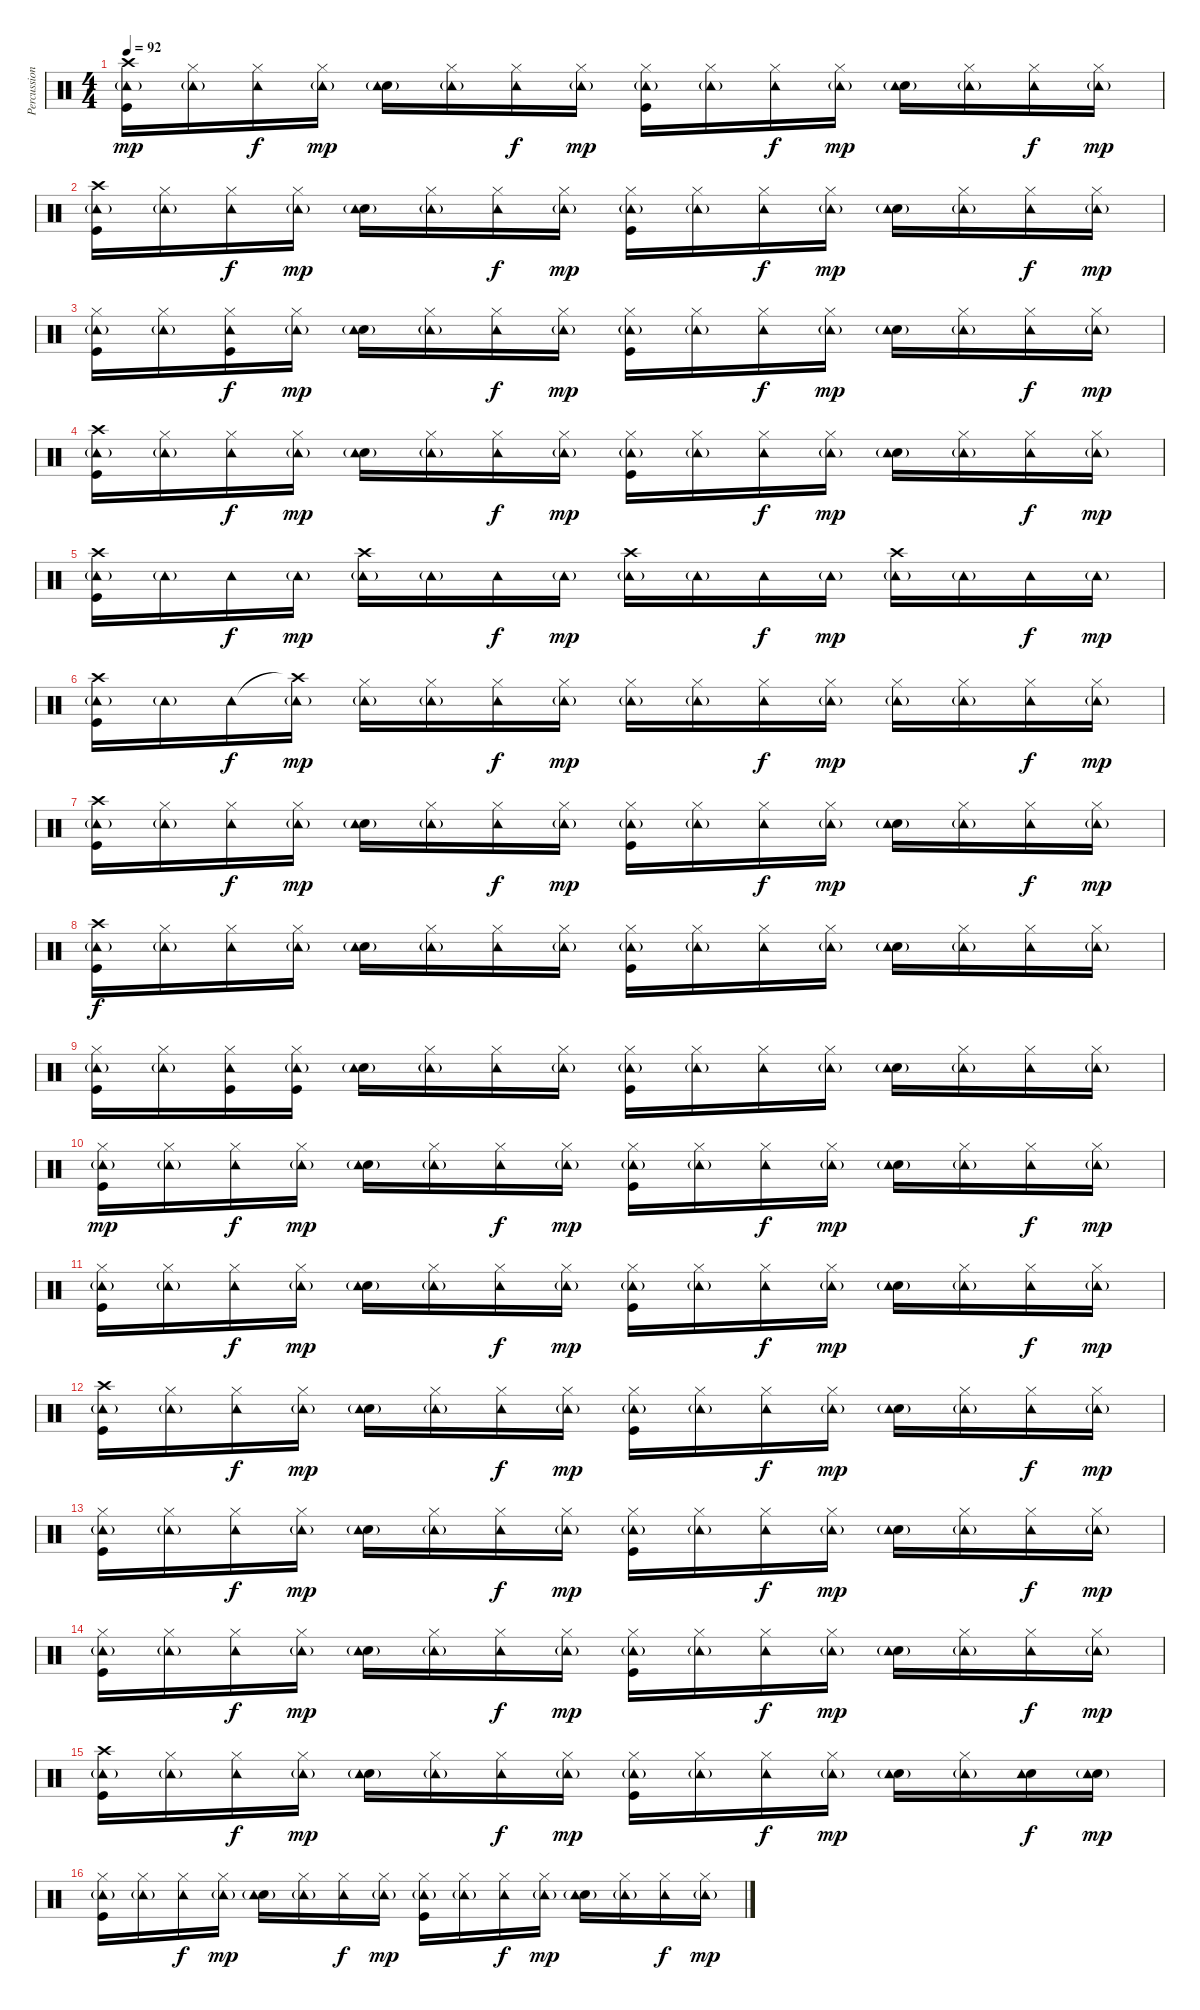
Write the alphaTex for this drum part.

\track ("Percussion" "Percussion") {instrument percussion}
\staff {score}
\articulation defaults
\ts (4 4)
\tempo 92
\clef neutral
\ks c
("Crash high (hit)" "Kick (hit)" "Tambourine (hit)"{g}).16{dy mp} ("Hi-Hat (closed)" "Tambourine (hit)"{g}).16 ("Hi-Hat (closed)" "Tambourine (hit)").16{dy f} ("Hi-Hat (closed)" "Tambourine (hit)"{g}).16{dy mp} ("Snare (hit) 2" "Tambourine (hit)"{g}).16 ("Hi-Hat (closed)" "Tambourine (hit)"{g}).16 ("Hi-Hat (closed)" "Tambourine (hit)").16{dy f} ("Hi-Hat (closed)" "Tambourine (hit)"{g}).16{dy mp} ("Hi-Hat (closed)" "Kick (hit)" "Tambourine (hit)"{g}).16 ("Hi-Hat (closed)" "Tambourine (hit)"{g}).16 ("Hi-Hat (closed)" "Tambourine (hit)").16{dy f} ("Hi-Hat (closed)" "Tambourine (hit)"{g}).16{dy mp} ("Snare (hit) 2" "Tambourine (hit)"{g}).16 ("Hi-Hat (closed)" "Tambourine (hit)"{g}).16 ("Hi-Hat (closed)" "Tambourine (hit)").16{dy f} ("Hi-Hat (closed)" "Tambourine (hit)"{g}).16{dy mp} |
("Crash high (hit)" "Kick (hit)" "Tambourine (hit)"{g}).16 ("Hi-Hat (closed)" "Tambourine (hit)"{g}).16 ("Hi-Hat (closed)" "Tambourine (hit)").16{dy f} ("Hi-Hat (closed)" "Tambourine (hit)"{g}).16{dy mp} ("Snare (hit) 2" "Tambourine (hit)"{g}).16 ("Hi-Hat (closed)" "Tambourine (hit)"{g}).16 ("Hi-Hat (closed)" "Tambourine (hit)").16{dy f} ("Hi-Hat (closed)" "Tambourine (hit)"{g}).16{dy mp} ("Hi-Hat (closed)" "Kick (hit)" "Tambourine (hit)"{g}).16 ("Hi-Hat (closed)" "Tambourine (hit)"{g}).16 ("Hi-Hat (closed)" "Tambourine (hit)").16{dy f} ("Hi-Hat (closed)" "Tambourine (hit)"{g}).16{dy mp} ("Snare (hit) 2" "Tambourine (hit)"{g}).16 ("Hi-Hat (closed)" "Tambourine (hit)"{g}).16 ("Hi-Hat (closed)" "Tambourine (hit)").16{dy f} ("Hi-Hat (closed)" "Tambourine (hit)"{g}).16{dy mp} |
("Hi-Hat (closed)" "Kick (hit)" "Tambourine (hit)"{g}).16 ("Hi-Hat (closed)" "Tambourine (hit)"{g}).16 ("Hi-Hat (closed)" "Kick (hit)" "Tambourine (hit)").16{dy f} ("Hi-Hat (closed)" "Tambourine (hit)"{g}).16{dy mp} ("Snare (hit) 2" "Tambourine (hit)"{g}).16 ("Hi-Hat (closed)" "Tambourine (hit)"{g}).16 ("Hi-Hat (closed)" "Tambourine (hit)").16{dy f} ("Hi-Hat (closed)" "Tambourine (hit)"{g}).16{dy mp} ("Hi-Hat (closed)" "Kick (hit)" "Tambourine (hit)"{g}).16 ("Hi-Hat (closed)" "Tambourine (hit)"{g}).16 ("Hi-Hat (closed)" "Tambourine (hit)").16{dy f} ("Hi-Hat (closed)" "Tambourine (hit)"{g}).16{dy mp} ("Snare (hit) 2" "Tambourine (hit)"{g}).16 ("Hi-Hat (closed)" "Tambourine (hit)"{g}).16 ("Hi-Hat (closed)" "Tambourine (hit)").16{dy f} ("Hi-Hat (closed)" "Tambourine (hit)"{g}).16{dy mp} |
("Crash high (hit)" "Kick (hit)" "Tambourine (hit)"{g}).16 ("Hi-Hat (closed)" "Tambourine (hit)"{g}).16 ("Hi-Hat (closed)" "Tambourine (hit)").16{dy f} ("Hi-Hat (closed)" "Tambourine (hit)"{g}).16{dy mp} ("Snare (hit) 2" "Tambourine (hit)"{g}).16 ("Hi-Hat (closed)" "Tambourine (hit)"{g}).16 ("Hi-Hat (closed)" "Tambourine (hit)").16{dy f} ("Hi-Hat (closed)" "Tambourine (hit)"{g}).16{dy mp} ("Hi-Hat (closed)" "Kick (hit)" "Tambourine (hit)"{g}).16 ("Hi-Hat (closed)" "Tambourine (hit)"{g}).16 ("Hi-Hat (closed)" "Tambourine (hit)").16{dy f} ("Hi-Hat (closed)" "Tambourine (hit)"{g}).16{dy mp} ("Snare (hit) 2" "Tambourine (hit)"{g}).16 ("Hi-Hat (closed)" "Tambourine (hit)"{g}).16 ("Hi-Hat (closed)" "Tambourine (hit)").16{dy f} ("Hi-Hat (closed)" "Tambourine (hit)"{g}).16{dy mp} |
("Crash high (hit)" "Kick (hit)" "Tambourine (hit)"{g}).16 "Tambourine (hit)"{g}.16 "Tambourine (hit)".16{dy f} "Tambourine (hit)"{g}.16{dy mp} ("Crash high (hit)" "Tambourine (hit)"{g}).16 "Tambourine (hit)"{g}.16 "Tambourine (hit)".16{dy f} "Tambourine (hit)"{g}.16{dy mp} ("Crash high (hit)" "Tambourine (hit)"{g}).16 "Tambourine (hit)"{g}.16 "Tambourine (hit)".16{dy f} "Tambourine (hit)"{g}.16{dy mp} ("Crash high (hit)" "Tambourine (hit)"{g}).16 "Tambourine (hit)"{g}.16 "Tambourine (hit)".16{dy f} "Tambourine (hit)"{g}.16{dy mp} |
("Crash high (hit)" "Kick (hit)" "Tambourine (hit)"{g}).16 "Tambourine (hit)"{g}.16 "Tambourine (hit)".16{dy f} ("Crash high (hit)"{t} "Tambourine (hit)"{g}).16{dy mp} ("Hi-Hat (closed)" "Tambourine (hit)"{g}).16 ("Hi-Hat (closed)" "Tambourine (hit)"{g}).16 ("Hi-Hat (closed)" "Tambourine (hit)").16{dy f} ("Hi-Hat (closed)" "Tambourine (hit)"{g}).16{dy mp} ("Hi-Hat (closed)" "Tambourine (hit)"{g}).16 ("Hi-Hat (closed)" "Tambourine (hit)"{g}).16 ("Hi-Hat (closed)" "Tambourine (hit)").16{dy f} ("Hi-Hat (closed)" "Tambourine (hit)"{g}).16{dy mp} ("Hi-Hat (closed)" "Tambourine (hit)"{g}).16 ("Hi-Hat (closed)" "Tambourine (hit)"{g}).16 ("Hi-Hat (closed)" "Tambourine (hit)").16{dy f} ("Hi-Hat (closed)" "Tambourine (hit)"{g}).16{dy mp} |
("Crash high (hit)" "Kick (hit)" "Tambourine (hit)"{g}).16 ("Hi-Hat (closed)" "Tambourine (hit)"{g}).16 ("Hi-Hat (closed)" "Tambourine (hit)").16{dy f} ("Hi-Hat (closed)" "Tambourine (hit)"{g}).16{dy mp} ("Snare (hit) 2" "Tambourine (hit)"{g}).16 ("Hi-Hat (closed)" "Tambourine (hit)"{g}).16 ("Hi-Hat (closed)" "Tambourine (hit)").16{dy f} ("Hi-Hat (closed)" "Tambourine (hit)"{g}).16{dy mp} ("Hi-Hat (closed)" "Kick (hit)" "Tambourine (hit)"{g}).16 ("Hi-Hat (closed)" "Tambourine (hit)"{g}).16 ("Hi-Hat (closed)" "Tambourine (hit)").16{dy f} ("Hi-Hat (closed)" "Tambourine (hit)"{g}).16{dy mp} ("Snare (hit) 2" "Tambourine (hit)"{g}).16 ("Hi-Hat (closed)" "Tambourine (hit)"{g}).16 ("Hi-Hat (closed)" "Tambourine (hit)").16{dy f} ("Hi-Hat (closed)" "Tambourine (hit)"{g}).16{dy mp} |
("Crash high (hit)" "Kick (hit)" "Tambourine (hit)"{g}).16{dy f} ("Hi-Hat (closed)" "Tambourine (hit)"{g}).16 ("Hi-Hat (closed)" "Tambourine (hit)").16 ("Hi-Hat (closed)" "Tambourine (hit)"{g}).16 ("Snare (hit) 2" "Tambourine (hit)"{g}).16 ("Hi-Hat (closed)" "Tambourine (hit)"{g}).16 ("Hi-Hat (closed)" "Tambourine (hit)").16 ("Hi-Hat (closed)" "Tambourine (hit)"{g}).16 ("Hi-Hat (closed)" "Kick (hit)" "Tambourine (hit)"{g}).16 ("Hi-Hat (closed)" "Tambourine (hit)"{g}).16 ("Hi-Hat (closed)" "Tambourine (hit)").16 ("Hi-Hat (closed)" "Tambourine (hit)"{g}).16 ("Snare (hit) 2" "Tambourine (hit)"{g}).16 ("Hi-Hat (closed)" "Tambourine (hit)"{g}).16 ("Hi-Hat (closed)" "Tambourine (hit)").16 ("Hi-Hat (closed)" "Tambourine (hit)"{g}).16 |
("Hi-Hat (closed)" "Kick (hit)" "Tambourine (hit)"{g}).16 ("Hi-Hat (closed)" "Tambourine (hit)"{g}).16 ("Hi-Hat (closed)" "Kick (hit)" "Tambourine (hit)").16 ("Hi-Hat (closed)" "Kick (hit)" "Tambourine (hit)"{g}).16 ("Snare (hit) 2" "Tambourine (hit)"{g}).16 ("Hi-Hat (closed)" "Tambourine (hit)"{g}).16 ("Hi-Hat (closed)" "Tambourine (hit)").16 ("Hi-Hat (closed)" "Tambourine (hit)"{g}).16 ("Hi-Hat (closed)" "Kick (hit)" "Tambourine (hit)"{g}).16 ("Hi-Hat (closed)" "Tambourine (hit)"{g}).16 ("Hi-Hat (closed)" "Tambourine (hit)").16 ("Hi-Hat (closed)" "Tambourine (hit)"{g}).16 ("Snare (hit) 2" "Tambourine (hit)"{g}).16 ("Hi-Hat (closed)" "Tambourine (hit)"{g}).16 ("Hi-Hat (closed)" "Tambourine (hit)").16 ("Hi-Hat (closed)" "Tambourine (hit)"{g}).16 |
("Hi-Hat (closed)" "Kick (hit)" "Tambourine (hit)"{g}).16{dy mp} ("Hi-Hat (closed)" "Tambourine (hit)"{g}).16 ("Hi-Hat (closed)" "Tambourine (hit)").16{dy f} ("Hi-Hat (closed)" "Tambourine (hit)"{g}).16{dy mp} ("Snare (hit) 2" "Tambourine (hit)"{g}).16 ("Hi-Hat (closed)" "Tambourine (hit)"{g}).16 ("Hi-Hat (closed)" "Tambourine (hit)").16{dy f} ("Hi-Hat (closed)" "Tambourine (hit)"{g}).16{dy mp} ("Hi-Hat (closed)" "Kick (hit)" "Tambourine (hit)"{g}).16 ("Hi-Hat (closed)" "Tambourine (hit)"{g}).16 ("Hi-Hat (closed)" "Tambourine (hit)").16{dy f} ("Hi-Hat (closed)" "Tambourine (hit)"{g}).16{dy mp} ("Snare (hit) 2" "Tambourine (hit)"{g}).16 ("Hi-Hat (closed)" "Tambourine (hit)"{g}).16 ("Hi-Hat (closed)" "Tambourine (hit)").16{dy f} ("Hi-Hat (closed)" "Tambourine (hit)"{g}).16{dy mp} |
("Hi-Hat (closed)" "Kick (hit)" "Tambourine (hit)"{g}).16 ("Hi-Hat (closed)" "Tambourine (hit)"{g}).16 ("Hi-Hat (closed)" "Tambourine (hit)").16{dy f} ("Hi-Hat (closed)" "Tambourine (hit)"{g}).16{dy mp} ("Snare (hit) 2" "Tambourine (hit)"{g}).16 ("Hi-Hat (closed)" "Tambourine (hit)"{g}).16 ("Hi-Hat (closed)" "Tambourine (hit)").16{dy f} ("Hi-Hat (closed)" "Tambourine (hit)"{g}).16{dy mp} ("Hi-Hat (closed)" "Kick (hit)" "Tambourine (hit)"{g}).16 ("Hi-Hat (closed)" "Tambourine (hit)"{g}).16 ("Hi-Hat (closed)" "Tambourine (hit)").16{dy f} ("Hi-Hat (closed)" "Tambourine (hit)"{g}).16{dy mp} ("Snare (hit) 2" "Tambourine (hit)"{g}).16 ("Hi-Hat (closed)" "Tambourine (hit)"{g}).16 ("Hi-Hat (closed)" "Tambourine (hit)").16{dy f} ("Hi-Hat (closed)" "Tambourine (hit)"{g}).16{dy mp} |
("Crash high (hit)" "Kick (hit)" "Tambourine (hit)"{g}).16 ("Hi-Hat (closed)" "Tambourine (hit)"{g}).16 ("Hi-Hat (closed)" "Tambourine (hit)").16{dy f} ("Hi-Hat (closed)" "Tambourine (hit)"{g}).16{dy mp} ("Snare (hit) 2" "Tambourine (hit)"{g}).16 ("Hi-Hat (closed)" "Tambourine (hit)"{g}).16 ("Hi-Hat (closed)" "Tambourine (hit)").16{dy f} ("Hi-Hat (closed)" "Tambourine (hit)"{g}).16{dy mp} ("Hi-Hat (closed)" "Kick (hit)" "Tambourine (hit)"{g}).16 ("Hi-Hat (closed)" "Tambourine (hit)"{g}).16 ("Hi-Hat (closed)" "Tambourine (hit)").16{dy f} ("Hi-Hat (closed)" "Tambourine (hit)"{g}).16{dy mp} ("Snare (hit) 2" "Tambourine (hit)"{g}).16 ("Hi-Hat (closed)" "Tambourine (hit)"{g}).16 ("Hi-Hat (closed)" "Tambourine (hit)").16{dy f} ("Hi-Hat (closed)" "Tambourine (hit)"{g}).16{dy mp} |
("Hi-Hat (closed)" "Kick (hit)" "Tambourine (hit)"{g}).16 ("Hi-Hat (closed)" "Tambourine (hit)"{g}).16 ("Hi-Hat (closed)" "Tambourine (hit)").16{dy f} ("Hi-Hat (closed)" "Tambourine (hit)"{g}).16{dy mp} ("Snare (hit) 2" "Tambourine (hit)"{g}).16 ("Hi-Hat (closed)" "Tambourine (hit)"{g}).16 ("Hi-Hat (closed)" "Tambourine (hit)").16{dy f} ("Hi-Hat (closed)" "Tambourine (hit)"{g}).16{dy mp} ("Hi-Hat (closed)" "Kick (hit)" "Tambourine (hit)"{g}).16 ("Hi-Hat (closed)" "Tambourine (hit)"{g}).16 ("Hi-Hat (closed)" "Tambourine (hit)").16{dy f} ("Hi-Hat (closed)" "Tambourine (hit)"{g}).16{dy mp} ("Snare (hit) 2" "Tambourine (hit)"{g}).16 ("Hi-Hat (closed)" "Tambourine (hit)"{g}).16 ("Hi-Hat (closed)" "Tambourine (hit)").16{dy f} ("Hi-Hat (closed)" "Tambourine (hit)"{g}).16{dy mp} |
("Hi-Hat (closed)" "Kick (hit)" "Tambourine (hit)"{g}).16 ("Hi-Hat (closed)" "Tambourine (hit)"{g}).16 ("Hi-Hat (closed)" "Tambourine (hit)").16{dy f} ("Hi-Hat (closed)" "Tambourine (hit)"{g}).16{dy mp} ("Snare (hit) 2" "Tambourine (hit)"{g}).16 ("Hi-Hat (closed)" "Tambourine (hit)"{g}).16 ("Hi-Hat (closed)" "Tambourine (hit)").16{dy f} ("Hi-Hat (closed)" "Tambourine (hit)"{g}).16{dy mp} ("Hi-Hat (closed)" "Kick (hit)" "Tambourine (hit)"{g}).16 ("Hi-Hat (closed)" "Tambourine (hit)"{g}).16 ("Hi-Hat (closed)" "Tambourine (hit)").16{dy f} ("Hi-Hat (closed)" "Tambourine (hit)"{g}).16{dy mp} ("Snare (hit) 2" "Tambourine (hit)"{g}).16 ("Hi-Hat (closed)" "Tambourine (hit)"{g}).16 ("Hi-Hat (closed)" "Tambourine (hit)").16{dy f} ("Hi-Hat (closed)" "Tambourine (hit)"{g}).16{dy mp} |
("Crash high (hit)" "Kick (hit)" "Tambourine (hit)"{g}).16 ("Hi-Hat (closed)" "Tambourine (hit)"{g}).16 ("Hi-Hat (closed)" "Tambourine (hit)").16{dy f} ("Hi-Hat (closed)" "Tambourine (hit)"{g}).16{dy mp} ("Snare (hit) 2" "Tambourine (hit)"{g}).16 ("Hi-Hat (closed)" "Tambourine (hit)"{g}).16 ("Hi-Hat (closed)" "Tambourine (hit)").16{dy f} ("Hi-Hat (closed)" "Tambourine (hit)"{g}).16{dy mp} ("Hi-Hat (closed)" "Kick (hit)" "Tambourine (hit)"{g}).16 ("Hi-Hat (closed)" "Tambourine (hit)"{g}).16 ("Hi-Hat (closed)" "Tambourine (hit)").16{dy f} ("Hi-Hat (closed)" "Tambourine (hit)"{g}).16{dy mp} ("Snare (hit) 2" "Tambourine (hit)"{g}).16 ("Hi-Hat (closed)" "Tambourine (hit)"{g}).16 ("Snare (hit) 2" "Tambourine (hit)").16{dy f} ("Snare (hit) 2" "Tambourine (hit)"{g}).16{dy mp} |
("Hi-Hat (closed)" "Kick (hit)" "Tambourine (hit)"{g}).16 ("Hi-Hat (closed)" "Tambourine (hit)"{g}).16 ("Hi-Hat (closed)" "Tambourine (hit)").16{dy f} ("Hi-Hat (closed)" "Tambourine (hit)"{g}).16{dy mp} ("Snare (hit) 2" "Tambourine (hit)"{g}).16 ("Hi-Hat (closed)" "Tambourine (hit)"{g}).16 ("Hi-Hat (closed)" "Tambourine (hit)").16{dy f} ("Hi-Hat (closed)" "Tambourine (hit)"{g}).16{dy mp} ("Hi-Hat (closed)" "Kick (hit)" "Tambourine (hit)"{g}).16 ("Hi-Hat (closed)" "Tambourine (hit)"{g}).16 ("Hi-Hat (closed)" "Tambourine (hit)").16{dy f} ("Hi-Hat (closed)" "Tambourine (hit)"{g}).16{dy mp} ("Snare (hit) 2" "Tambourine (hit)"{g}).16 ("Hi-Hat (closed)" "Tambourine (hit)"{g}).16 ("Hi-Hat (closed)" "Tambourine (hit)").16{dy f} ("Hi-Hat (closed)" "Tambourine (hit)"{g}).16{dy mp}
